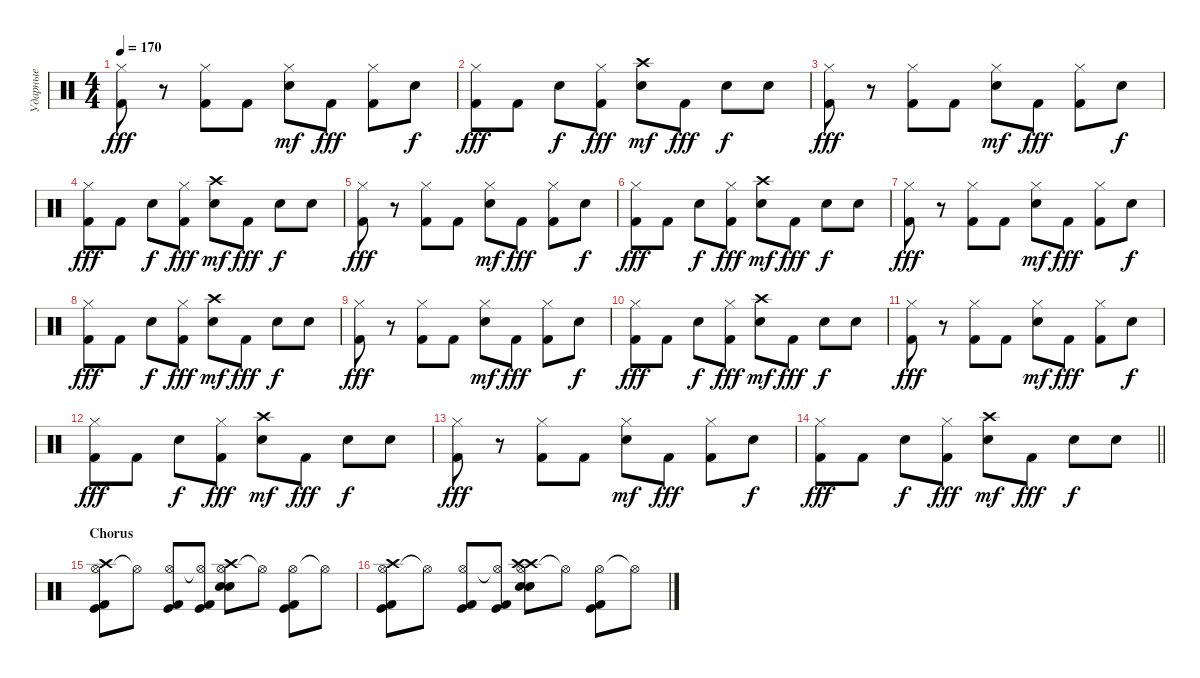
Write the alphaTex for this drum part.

\track ("Ударные" "Ударные") {instrument percussion}
\staff {score}
\articulation defaults
\ts (4 4)
\tempo 170
\clef neutral
\ks c
("Hi-Hat (closed)" "Kick (hit) 2").8{dy fff} r.8 ("Hi-Hat (closed)" "Kick (hit) 2").8 "Kick (hit) 2".8 ("Hi-Hat (closed)" "Electric Snare (hit)").8{dy mf} "Kick (hit) 2".8{dy fff} ("Hi-Hat (closed)" "Kick (hit) 2").8 "Electric Snare (hit)".8{dy f} |
("Hi-Hat (closed)" "Kick (hit) 2").8{dy fff} "Kick (hit) 2".8 "Electric Snare (hit)".8{dy f} ("Hi-Hat (closed)" "Kick (hit) 2").8{dy fff} ("Crash high (hit)" "Electric Snare (hit)").8{dy mf} "Kick (hit) 2".8{dy fff} "Electric Snare (hit)".8{dy f} "Electric Snare (hit)".8 |
("Hi-Hat (closed)" "Kick (hit) 2").8{dy fff} r.8 ("Hi-Hat (closed)" "Kick (hit) 2").8 "Kick (hit) 2".8 ("Hi-Hat (closed)" "Electric Snare (hit)").8{dy mf} "Kick (hit) 2".8{dy fff} ("Hi-Hat (closed)" "Kick (hit) 2").8 "Electric Snare (hit)".8{dy f} |
("Hi-Hat (closed)" "Kick (hit) 2").8{dy fff} "Kick (hit) 2".8 "Electric Snare (hit)".8{dy f} ("Hi-Hat (closed)" "Kick (hit) 2").8{dy fff} ("Crash high (hit)" "Electric Snare (hit)").8{dy mf} "Kick (hit) 2".8{dy fff} "Electric Snare (hit)".8{dy f} "Electric Snare (hit)".8 |
("Hi-Hat (closed)" "Kick (hit) 2").8{dy fff} r.8 ("Hi-Hat (closed)" "Kick (hit) 2").8 "Kick (hit) 2".8 ("Hi-Hat (closed)" "Electric Snare (hit)").8{dy mf} "Kick (hit) 2".8{dy fff} ("Hi-Hat (closed)" "Kick (hit) 2").8 "Electric Snare (hit)".8{dy f} |
("Hi-Hat (closed)" "Kick (hit) 2").8{dy fff} "Kick (hit) 2".8 "Electric Snare (hit)".8{dy f} ("Hi-Hat (closed)" "Kick (hit) 2").8{dy fff} ("Crash high (hit)" "Electric Snare (hit)").8{dy mf} "Kick (hit) 2".8{dy fff} "Electric Snare (hit)".8{dy f} "Electric Snare (hit)".8 |
("Hi-Hat (closed)" "Kick (hit) 2").8{dy fff} r.8 ("Hi-Hat (closed)" "Kick (hit) 2").8 "Kick (hit) 2".8 ("Hi-Hat (closed)" "Electric Snare (hit)").8{dy mf} "Kick (hit) 2".8{dy fff} ("Hi-Hat (closed)" "Kick (hit) 2").8 "Electric Snare (hit)".8{dy f} |
("Hi-Hat (closed)" "Kick (hit) 2").8{dy fff} "Kick (hit) 2".8 "Electric Snare (hit)".8{dy f} ("Hi-Hat (closed)" "Kick (hit) 2").8{dy fff} ("Crash high (hit)" "Electric Snare (hit)").8{dy mf} "Kick (hit) 2".8{dy fff} "Electric Snare (hit)".8{dy f} "Electric Snare (hit)".8 |
("Hi-Hat (closed)" "Kick (hit) 2").8{dy fff} r.8 ("Hi-Hat (closed)" "Kick (hit) 2").8 "Kick (hit) 2".8 ("Hi-Hat (closed)" "Electric Snare (hit)").8{dy mf} "Kick (hit) 2".8{dy fff} ("Hi-Hat (closed)" "Kick (hit) 2").8 "Electric Snare (hit)".8{dy f} |
("Hi-Hat (closed)" "Kick (hit) 2").8{dy fff} "Kick (hit) 2".8 "Electric Snare (hit)".8{dy f} ("Hi-Hat (closed)" "Kick (hit) 2").8{dy fff} ("Crash high (hit)" "Electric Snare (hit)").8{dy mf} "Kick (hit) 2".8{dy fff} "Electric Snare (hit)".8{dy f} "Electric Snare (hit)".8 |
("Hi-Hat (closed)" "Kick (hit) 2").8{dy fff} r.8 ("Hi-Hat (closed)" "Kick (hit) 2").8 "Kick (hit) 2".8 ("Hi-Hat (closed)" "Electric Snare (hit)").8{dy mf} "Kick (hit) 2".8{dy fff} ("Hi-Hat (closed)" "Kick (hit) 2").8 "Electric Snare (hit)".8{dy f} |
("Hi-Hat (closed)" "Kick (hit) 2").8{dy fff} "Kick (hit) 2".8 "Electric Snare (hit)".8{dy f} ("Hi-Hat (closed)" "Kick (hit) 2").8{dy fff} ("Crash high (hit)" "Electric Snare (hit)").8{dy mf} "Kick (hit) 2".8{dy fff} "Electric Snare (hit)".8{dy f} "Electric Snare (hit)".8 |
("Hi-Hat (closed)" "Kick (hit) 2").8{dy fff} r.8 ("Hi-Hat (closed)" "Kick (hit) 2").8 "Kick (hit) 2".8 ("Hi-Hat (closed)" "Electric Snare (hit)").8{dy mf} "Kick (hit) 2".8{dy fff} ("Hi-Hat (closed)" "Kick (hit) 2").8 "Electric Snare (hit)".8{dy f} |
\barLineRight lightlight
("Hi-Hat (closed)" "Kick (hit) 2").8{dy fff} "Kick (hit) 2".8 "Electric Snare (hit)".8{dy f} ("Hi-Hat (closed)" "Kick (hit) 2").8{dy fff} ("Crash high (hit)" "Electric Snare (hit)").8{dy mf} "Kick (hit) 2".8{dy fff} "Electric Snare (hit)".8{dy f} "Electric Snare (hit)".8 |
\section ("" "Chorus ")
("Hi-Hat (open)" "Kick (hit)" "Kick (hit) 2" "Crash high (hit)").8 "Hi-Hat (open)"{t}.8 ("Hi-Hat (open)" "Kick (hit)" "Kick (hit) 2").8 ("Hi-Hat (open)"{t} "Kick (hit)" "Kick (hit) 2").8 ("Hi-Hat (open)" "Electric Snare (hit)" "Electric Snare (hit)" "Crash high (hit)").8 "Hi-Hat (open)"{t}.8 ("Hi-Hat (open)" "Kick (hit)" "Kick (hit) 2").8 "Hi-Hat (open)"{t}.8 |
("Hi-Hat (open)" "Kick (hit)" "Kick (hit) 2" "Crash high (hit)").8 "Hi-Hat (open)"{t}.8 ("Hi-Hat (open)" "Kick (hit)" "Kick (hit) 2").8 ("Hi-Hat (open)"{t} "Kick (hit)" "Kick (hit) 2").8 ("Hi-Hat (open)" "Electric Snare (hit)" "Electric Snare (hit)" "Crash high (hit)" "Crash high (hit)").8 "Hi-Hat (open)"{t}.8 ("Hi-Hat (open)" "Kick (hit)" "Kick (hit) 2").8 "Hi-Hat (open)"{t}.8
